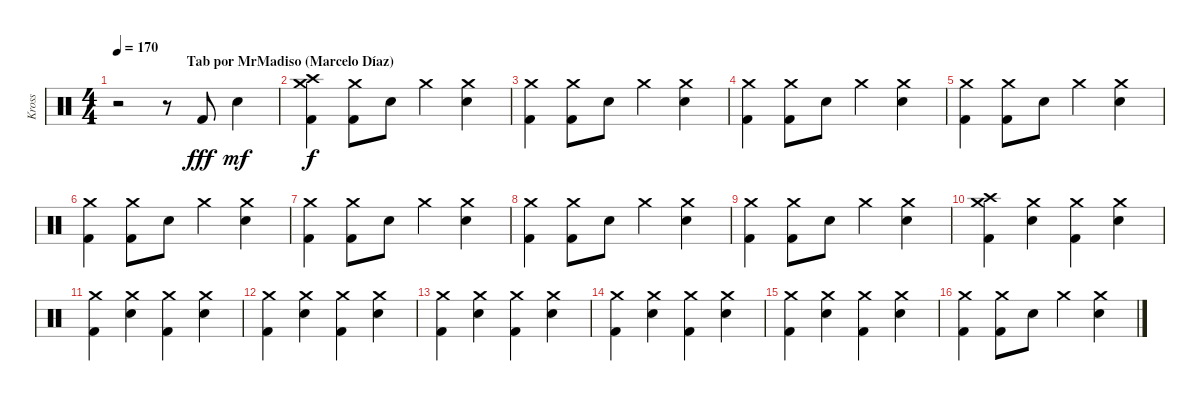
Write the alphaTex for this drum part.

\track ("Kross" "Kross") {instrument percussion}
\staff {score}
\articulation defaults
\ts (4 4)
\section ("" "                     Tab por MrMadiso (Marcelo Díaz)         ")
\tempo 170
\clef neutral
\ks c
r.2{dy fff} r.8 "Kick (hit) 2".8 "Electric Snare (hit)".4{dy mf} |
("Crash medium (hit)" "Crash high (hit)" "Kick (hit) 2").4{dy f} ("Crash medium (hit)" "Kick (hit) 2").8 "Electric Snare (hit)".8 "Crash medium (hit)".4 ("Crash medium (hit)" "Electric Snare (hit)").4 |
("Crash medium (hit)" "Kick (hit) 2").4 ("Crash medium (hit)" "Kick (hit) 2").8 "Electric Snare (hit)".8 "Crash medium (hit)".4 ("Crash medium (hit)" "Electric Snare (hit)").4 |
("Crash medium (hit)" "Kick (hit) 2").4 ("Crash medium (hit)" "Kick (hit) 2").8 "Electric Snare (hit)".8 "Crash medium (hit)".4 ("Crash medium (hit)" "Electric Snare (hit)").4 |
("Crash medium (hit)" "Kick (hit) 2").4 ("Crash medium (hit)" "Kick (hit) 2").8 "Electric Snare (hit)".8 "Crash medium (hit)".4 ("Crash medium (hit)" "Electric Snare (hit)").4 |
("Crash medium (hit)" "Kick (hit) 2").4 ("Crash medium (hit)" "Kick (hit) 2").8 "Electric Snare (hit)".8 "Crash medium (hit)".4 ("Crash medium (hit)" "Electric Snare (hit)").4 |
("Crash medium (hit)" "Kick (hit) 2").4 ("Crash medium (hit)" "Kick (hit) 2").8 "Electric Snare (hit)".8 "Crash medium (hit)".4 ("Crash medium (hit)" "Electric Snare (hit)").4 |
("Crash medium (hit)" "Kick (hit) 2").4 ("Crash medium (hit)" "Kick (hit) 2").8 "Electric Snare (hit)".8 "Crash medium (hit)".4 ("Crash medium (hit)" "Electric Snare (hit)").4 |
("Crash medium (hit)" "Kick (hit) 2").4 ("Crash medium (hit)" "Kick (hit) 2").8 "Electric Snare (hit)".8 "Crash medium (hit)".4 ("Crash medium (hit)" "Electric Snare (hit)").4 |
("Crash medium (hit)" "Crash high (hit)" "Kick (hit) 2").4 ("Crash medium (hit)" "Electric Snare (hit)").4 ("Crash medium (hit)" "Kick (hit) 2").4 ("Crash medium (hit)" "Electric Snare (hit)").4 |
("Crash medium (hit)" "Kick (hit) 2").4 ("Crash medium (hit)" "Electric Snare (hit)").4 ("Crash medium (hit)" "Kick (hit) 2").4 ("Crash medium (hit)" "Electric Snare (hit)").4 |
("Crash medium (hit)" "Kick (hit) 2").4 ("Crash medium (hit)" "Electric Snare (hit)").4 ("Crash medium (hit)" "Kick (hit) 2").4 ("Crash medium (hit)" "Electric Snare (hit)").4 |
("Crash medium (hit)" "Kick (hit) 2").4 ("Crash medium (hit)" "Electric Snare (hit)").4 ("Crash medium (hit)" "Kick (hit) 2").4 ("Crash medium (hit)" "Electric Snare (hit)").4 |
("Crash medium (hit)" "Kick (hit) 2").4 ("Crash medium (hit)" "Electric Snare (hit)").4 ("Crash medium (hit)" "Kick (hit) 2").4 ("Crash medium (hit)" "Electric Snare (hit)").4 |
("Crash medium (hit)" "Kick (hit) 2").4 ("Crash medium (hit)" "Electric Snare (hit)").4 ("Crash medium (hit)" "Kick (hit) 2").4 ("Crash medium (hit)" "Electric Snare (hit)").4 |
("Crash medium (hit)" "Kick (hit) 2").4 ("Crash medium (hit)" "Kick (hit) 2").8 "Electric Snare (hit)".8 "Crash medium (hit)".4 ("Crash medium (hit)" "Electric Snare (hit)").4
